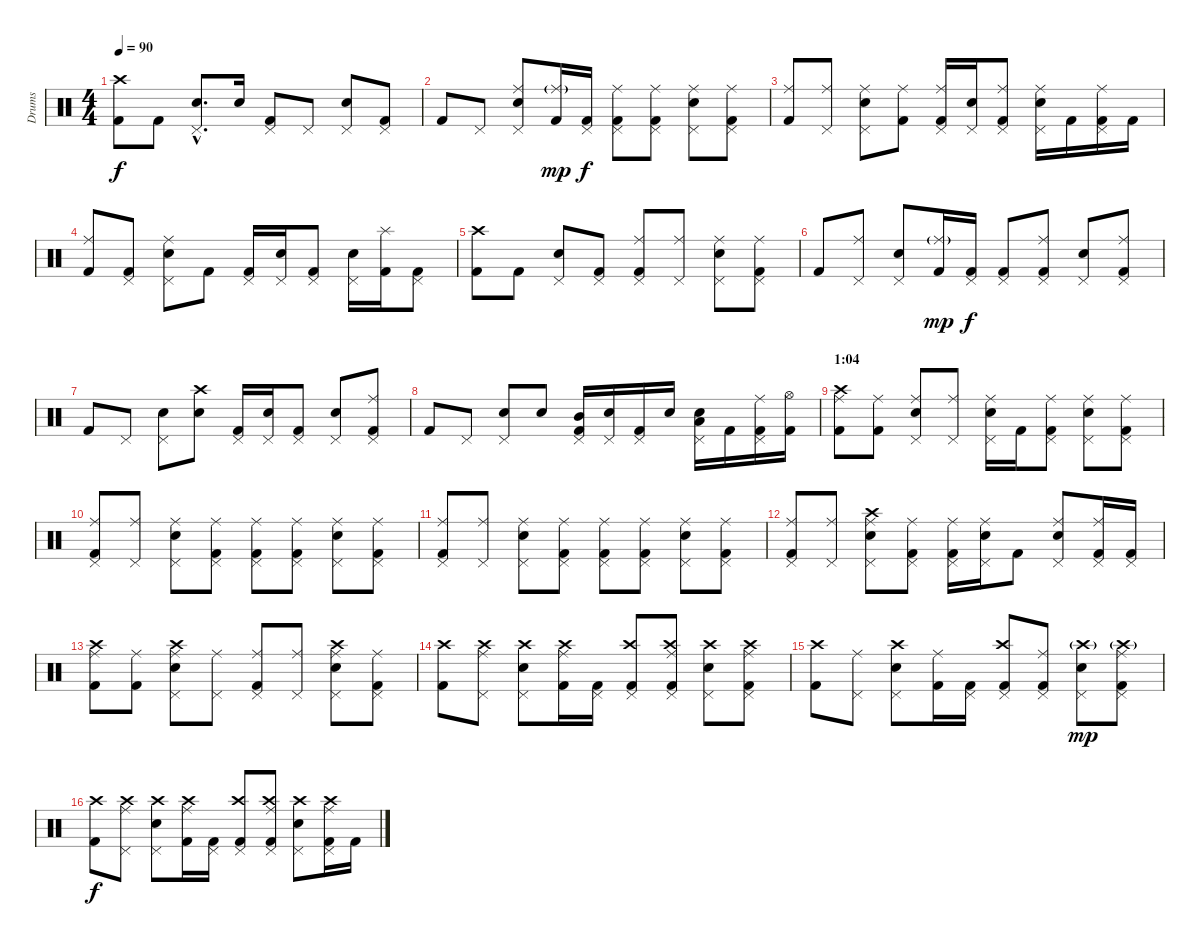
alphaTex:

\track ("Drums" "Drums") {instrument percussion}
\staff {score}
\articulation defaults
\ts (4 4)
\tempo 90
\clef neutral
\ks c
("Kick (hit) 2" "Crash high (hit)").8{dy f} "Kick (hit) 2".8 ("Snare (hit) 2"{hac} "Pedal Hi-Hat (hit)"{hac}).8{d} "Snare (hit) 2".16 ("Kick (hit) 2" "Pedal Hi-Hat (hit)").8 "Pedal Hi-Hat (hit)".8 ("Snare (hit) 2" "Pedal Hi-Hat (hit)").8 ("Kick (hit) 2" "Pedal Hi-Hat (hit)").8 |
"Kick (hit) 2".8 "Pedal Hi-Hat (hit)".8 ("Snare (hit) 2" "Pedal Hi-Hat (hit)" "Ride (middle)").8 ("Kick (hit) 2" "Ride (middle)"{g}).16{dy mp} ("Kick (hit) 2" "Pedal Hi-Hat (hit)").16{dy f} ("Kick (hit) 2" "Pedal Hi-Hat (hit)" "Ride (middle)").8 ("Kick (hit) 2" "Pedal Hi-Hat (hit)" "Ride (middle)").8 ("Snare (hit) 2" "Pedal Hi-Hat (hit)" "Ride (middle)").8 ("Kick (hit) 2" "Pedal Hi-Hat (hit)" "Ride (middle)").8 |
("Kick (hit) 2" "Ride (middle)").8 ("Pedal Hi-Hat (hit)" "Ride (middle)").8 ("Snare (hit) 2" "Pedal Hi-Hat (hit)" "Ride (middle)").8 ("Kick (hit) 2" "Ride (middle)").8 ("Kick (hit) 2" "Pedal Hi-Hat (hit)" "Ride (middle)").16 ("Snare (hit) 2" "Pedal Hi-Hat (hit)").16 ("Kick (hit) 2" "Pedal Hi-Hat (hit)" "Ride (middle)").8 ("Snare (hit) 2" "Pedal Hi-Hat (hit)" "Ride (middle)").16 "Kick (hit) 2".16 ("Kick (hit) 2" "Pedal Hi-Hat (hit)" "Ride (middle)").16 "Kick (hit) 2".16 |
("Kick (hit) 2" "Ride (middle)").8 ("Kick (hit) 2" "Pedal Hi-Hat (hit)").8 ("Snare (hit) 2" "Pedal Hi-Hat (hit)" "Ride (middle)").8 "Kick (hit) 2".8 ("Kick (hit) 2" "Pedal Hi-Hat (hit)").16 ("Snare (hit) 2" "Pedal Hi-Hat (hit)").16 ("Kick (hit) 2" "Pedal Hi-Hat (hit)").8 ("Snare (hit) 2" "Pedal Hi-Hat (hit)").16 ("Kick (hit) 2" "Splash (hit)").16 ("Kick (hit) 2" "Pedal Hi-Hat (hit)").8 |
("Kick (hit) 2" "Crash high (hit)").8 "Kick (hit) 2".8 ("Snare (hit) 2" "Pedal Hi-Hat (hit)").8 ("Kick (hit) 2" "Pedal Hi-Hat (hit)").8 ("Kick (hit) 2" "Pedal Hi-Hat (hit)" "Ride (middle)").8 ("Pedal Hi-Hat (hit)" "Ride (middle)").8 ("Snare (hit) 2" "Pedal Hi-Hat (hit)" "Ride (middle)").8 ("Kick (hit) 2" "Pedal Hi-Hat (hit)" "Ride (middle)").8 |
"Kick (hit) 2".8 ("Pedal Hi-Hat (hit)" "Ride (middle)").8 ("Snare (hit) 2" "Pedal Hi-Hat (hit)").8 ("Kick (hit) 2" "Ride (middle)"{g}).16{dy mp} ("Kick (hit) 2" "Pedal Hi-Hat (hit)").16{dy f} ("Kick (hit) 2" "Pedal Hi-Hat (hit)").8 ("Kick (hit) 2" "Pedal Hi-Hat (hit)" "Ride (middle)").8 ("Snare (hit) 2" "Pedal Hi-Hat (hit)").8 ("Kick (hit) 2" "Pedal Hi-Hat (hit)" "Ride (middle)").8 |
"Kick (hit) 2".8 "Pedal Hi-Hat (hit)".8 ("Snare (hit) 2" "Pedal Hi-Hat (hit)").8 ("Snare (hit) 2" "Crash high (hit)").8 ("Kick (hit) 2" "Pedal Hi-Hat (hit)").16 ("Snare (hit) 2" "Pedal Hi-Hat (hit)").16 ("Kick (hit) 2" "Pedal Hi-Hat (hit)").8 ("Snare (hit) 2" "Pedal Hi-Hat (hit)").8 ("Kick (hit) 2" "Pedal Hi-Hat (hit)" "Ride (middle)").8 |
"Kick (hit) 2".8 "Pedal Hi-Hat (hit)".8 ("Snare (hit) 2" "Pedal Hi-Hat (hit)").8 "Snare (hit) 2".8 ("Kick (hit) 2" "Pedal Hi-Hat (hit)" "Mid Tom (hit)").16 ("Snare (hit) 2" "Pedal Hi-Hat (hit)").16 ("Kick (hit) 2" "Pedal Hi-Hat (hit)").16 "Snare (hit) 2".16 ("Snare (hit) 2" "Pedal Hi-Hat (hit)" "Low Tom (hit)").16 "Kick (hit) 2".16 ("Kick (hit) 2" "Pedal Hi-Hat (hit)" "Ride (middle)").16 ("Kick (hit) 2" "Hi-Hat (open)").16 |
\section ("" "1:04")
("Kick (hit) 2" "Crash high (hit)" "Ride (middle)").8 ("Kick (hit) 2" "Ride (middle)").8 ("Snare (hit) 2" "Pedal Hi-Hat (hit)" "Ride (middle)").8 ("Pedal Hi-Hat (hit)" "Ride (middle)").8 ("Snare (hit) 2" "Pedal Hi-Hat (hit)" "Ride (middle)").16 "Kick (hit) 2".16 ("Kick (hit) 2" "Pedal Hi-Hat (hit)" "Ride (middle)").8 ("Snare (hit) 2" "Pedal Hi-Hat (hit)" "Ride (middle)").8 ("Kick (hit) 2" "Pedal Hi-Hat (hit)" "Ride (middle)").8 |
("Kick (hit) 2" "Pedal Hi-Hat (hit)" "Ride (middle)").8 ("Pedal Hi-Hat (hit)" "Ride (middle)").8 ("Snare (hit) 2" "Pedal Hi-Hat (hit)" "Ride (middle)").8 ("Kick (hit) 2" "Pedal Hi-Hat (hit)" "Ride (middle)").8 ("Kick (hit) 2" "Pedal Hi-Hat (hit)" "Ride (middle)").8 ("Kick (hit) 2" "Pedal Hi-Hat (hit)" "Ride (middle)").8 ("Snare (hit) 2" "Pedal Hi-Hat (hit)" "Ride (middle)").8 ("Kick (hit) 2" "Pedal Hi-Hat (hit)" "Ride (middle)").8 |
("Kick (hit) 2" "Pedal Hi-Hat (hit)" "Ride (middle)").8 ("Pedal Hi-Hat (hit)" "Ride (middle)").8 ("Snare (hit) 2" "Pedal Hi-Hat (hit)" "Ride (middle)").8 ("Kick (hit) 2" "Pedal Hi-Hat (hit)" "Ride (middle)").8 ("Kick (hit) 2" "Pedal Hi-Hat (hit)" "Ride (middle)").8 ("Kick (hit) 2" "Pedal Hi-Hat (hit)" "Ride (middle)").8 ("Snare (hit) 2" "Pedal Hi-Hat (hit)" "Ride (middle)").8 ("Kick (hit) 2" "Pedal Hi-Hat (hit)" "Ride (middle)").8 |
("Kick (hit) 2" "Pedal Hi-Hat (hit)" "Ride (middle)").8 ("Pedal Hi-Hat (hit)" "Ride (middle)").8 ("Snare (hit) 2" "Pedal Hi-Hat (hit)" "Crash high (hit)" "Ride (middle)").8 ("Kick (hit) 2" "Pedal Hi-Hat (hit)" "Ride (middle)").8 ("Kick (hit) 2" "Pedal Hi-Hat (hit)" "Ride (middle)").16 ("Snare (hit) 2" "Pedal Hi-Hat (hit)" "Ride (middle)").16 "Kick (hit) 2".8 ("Snare (hit) 2" "Pedal Hi-Hat (hit)" "Ride (middle)").8 ("Kick (hit) 2" "Pedal Hi-Hat (hit)" "Ride (middle)").16 ("Kick (hit) 2" "Pedal Hi-Hat (hit)").16 |
("Kick (hit) 2" "Crash high (hit)" "Ride (middle)").8 ("Kick (hit) 2" "Ride (middle)").8 ("Snare (hit) 2" "Pedal Hi-Hat (hit)" "Crash high (hit)" "Ride (middle)").8 ("Pedal Hi-Hat (hit)" "Ride (middle)").8 ("Kick (hit) 2" "Pedal Hi-Hat (hit)" "Ride (middle)").8 ("Pedal Hi-Hat (hit)" "Ride (middle)").8 ("Snare (hit) 2" "Pedal Hi-Hat (hit)" "Crash high (hit)" "Ride (middle)").8 ("Kick (hit) 2" "Pedal Hi-Hat (hit)" "Ride (middle)").8 |
("Kick (hit) 2" "Crash high (hit)").8 ("Pedal Hi-Hat (hit)" "Crash high (hit)" "Ride (middle)").8 ("Snare (hit) 2" "Pedal Hi-Hat (hit)" "Crash high (hit)").8 ("Kick (hit) 2" "Crash high (hit)" "Ride (middle)").16 ("Kick (hit) 2" "Pedal Hi-Hat (hit)").16 ("Kick (hit) 2" "Pedal Hi-Hat (hit)" "Crash high (hit)").8 ("Kick (hit) 2" "Pedal Hi-Hat (hit)" "Crash high (hit)" "Ride (middle)").8 ("Snare (hit) 2" "Pedal Hi-Hat (hit)" "Crash high (hit)").8 ("Kick (hit) 2" "Pedal Hi-Hat (hit)" "Crash high (hit)" "Ride (middle)").8 |
("Kick (hit) 2" "Crash high (hit)").8 ("Pedal Hi-Hat (hit)" "Ride (middle)").8 ("Snare (hit) 2" "Pedal Hi-Hat (hit)" "Crash high (hit)").8 ("Kick (hit) 2" "Ride (middle)").16 ("Kick (hit) 2" "Pedal Hi-Hat (hit)").16 ("Kick (hit) 2" "Pedal Hi-Hat (hit)" "Crash high (hit)").8 ("Kick (hit) 2" "Pedal Hi-Hat (hit)" "Ride (middle)").8 ("Snare (hit) 2" "Pedal Hi-Hat (hit)" "Crash high (hit)"{g}).8{dy mp} ("Kick (hit) 2" "Pedal Hi-Hat (hit)" "Crash high (hit)"{g} "Ride (middle)").8 |
("Kick (hit) 2" "Crash high (hit)").8{dy f} ("Pedal Hi-Hat (hit)" "Crash high (hit)" "Ride (middle)").8 ("Snare (hit) 2" "Pedal Hi-Hat (hit)" "Crash high (hit)").8 ("Kick (hit) 2" "Crash high (hit)" "Ride (middle)").16 ("Kick (hit) 2" "Pedal Hi-Hat (hit)").16 ("Kick (hit) 2" "Pedal Hi-Hat (hit)" "Crash high (hit)").8 ("Kick (hit) 2" "Pedal Hi-Hat (hit)" "Crash high (hit)" "Ride (middle)").8 ("Snare (hit) 2" "Pedal Hi-Hat (hit)" "Crash high (hit)").8 ("Kick (hit) 2" "Pedal Hi-Hat (hit)" "Crash high (hit)" "Ride (middle)").16 "Kick (hit) 2".16
